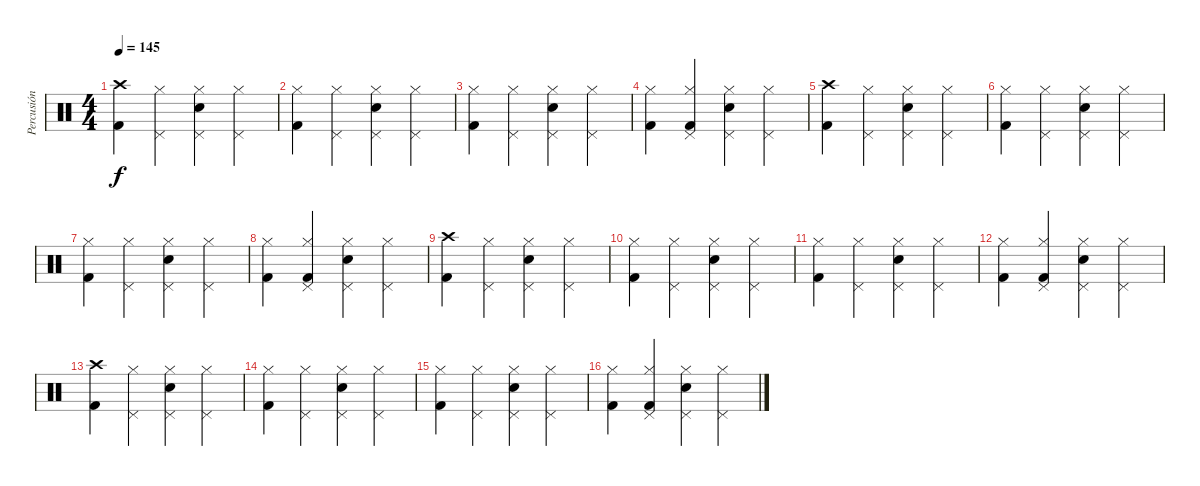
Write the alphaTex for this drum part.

\track ("Percusión" "Percusión") {instrument percussion}
\staff {score}
\articulation defaults
\ts (4 4)
\tempo 145
\clef neutral
\ks c
("Crash high (hit)" "Kick (hit) 2").4{dy f} ("Hi-Hat (closed)" "Pedal Hi-Hat (hit)").4 ("Hi-Hat (closed)" "Pedal Hi-Hat (hit)" "Electric Snare (hit)").4 ("Hi-Hat (closed)" "Pedal Hi-Hat (hit)").4 |
("Hi-Hat (closed)" "Kick (hit) 2").4 ("Hi-Hat (closed)" "Pedal Hi-Hat (hit)").4 ("Hi-Hat (closed)" "Pedal Hi-Hat (hit)" "Electric Snare (hit)").4 ("Hi-Hat (closed)" "Pedal Hi-Hat (hit)").4 |
("Hi-Hat (closed)" "Kick (hit) 2").4 ("Hi-Hat (closed)" "Pedal Hi-Hat (hit)").4 ("Hi-Hat (closed)" "Pedal Hi-Hat (hit)" "Electric Snare (hit)").4 ("Hi-Hat (closed)" "Pedal Hi-Hat (hit)").4 |
("Hi-Hat (closed)" "Kick (hit) 2").4 ("Hi-Hat (closed)" "Pedal Hi-Hat (hit)" "Kick (hit) 2").4 ("Hi-Hat (closed)" "Pedal Hi-Hat (hit)" "Electric Snare (hit)").4 ("Hi-Hat (closed)" "Pedal Hi-Hat (hit)").4 |
("Crash high (hit)" "Kick (hit) 2").4 ("Hi-Hat (closed)" "Pedal Hi-Hat (hit)").4 ("Hi-Hat (closed)" "Pedal Hi-Hat (hit)" "Electric Snare (hit)").4 ("Hi-Hat (closed)" "Pedal Hi-Hat (hit)").4 |
("Hi-Hat (closed)" "Kick (hit) 2").4 ("Hi-Hat (closed)" "Pedal Hi-Hat (hit)").4 ("Hi-Hat (closed)" "Pedal Hi-Hat (hit)" "Electric Snare (hit)").4 ("Hi-Hat (closed)" "Pedal Hi-Hat (hit)").4 |
("Hi-Hat (closed)" "Kick (hit) 2").4 ("Hi-Hat (closed)" "Pedal Hi-Hat (hit)").4 ("Hi-Hat (closed)" "Pedal Hi-Hat (hit)" "Electric Snare (hit)").4 ("Hi-Hat (closed)" "Pedal Hi-Hat (hit)").4 |
("Hi-Hat (closed)" "Kick (hit) 2").4 ("Hi-Hat (closed)" "Pedal Hi-Hat (hit)" "Kick (hit) 2").4 ("Hi-Hat (closed)" "Pedal Hi-Hat (hit)" "Electric Snare (hit)").4 ("Hi-Hat (closed)" "Pedal Hi-Hat (hit)").4 |
("Crash high (hit)" "Kick (hit) 2").4 ("Hi-Hat (closed)" "Pedal Hi-Hat (hit)").4 ("Hi-Hat (closed)" "Pedal Hi-Hat (hit)" "Electric Snare (hit)").4 ("Hi-Hat (closed)" "Pedal Hi-Hat (hit)").4 |
("Hi-Hat (closed)" "Kick (hit) 2").4 ("Hi-Hat (closed)" "Pedal Hi-Hat (hit)").4 ("Hi-Hat (closed)" "Pedal Hi-Hat (hit)" "Electric Snare (hit)").4 ("Hi-Hat (closed)" "Pedal Hi-Hat (hit)").4 |
("Hi-Hat (closed)" "Kick (hit) 2").4 ("Hi-Hat (closed)" "Pedal Hi-Hat (hit)").4 ("Hi-Hat (closed)" "Pedal Hi-Hat (hit)" "Electric Snare (hit)").4 ("Hi-Hat (closed)" "Pedal Hi-Hat (hit)").4 |
("Hi-Hat (closed)" "Kick (hit) 2").4 ("Hi-Hat (closed)" "Pedal Hi-Hat (hit)" "Kick (hit) 2").4 ("Hi-Hat (closed)" "Pedal Hi-Hat (hit)" "Electric Snare (hit)").4 ("Hi-Hat (closed)" "Pedal Hi-Hat (hit)").4 |
("Crash high (hit)" "Kick (hit) 2").4 ("Hi-Hat (closed)" "Pedal Hi-Hat (hit)").4 ("Hi-Hat (closed)" "Pedal Hi-Hat (hit)" "Electric Snare (hit)").4 ("Hi-Hat (closed)" "Pedal Hi-Hat (hit)").4 |
("Hi-Hat (closed)" "Kick (hit) 2").4 ("Hi-Hat (closed)" "Pedal Hi-Hat (hit)").4 ("Hi-Hat (closed)" "Pedal Hi-Hat (hit)" "Electric Snare (hit)").4 ("Hi-Hat (closed)" "Pedal Hi-Hat (hit)").4 |
("Hi-Hat (closed)" "Kick (hit) 2").4 ("Hi-Hat (closed)" "Pedal Hi-Hat (hit)").4 ("Hi-Hat (closed)" "Pedal Hi-Hat (hit)" "Electric Snare (hit)").4 ("Hi-Hat (closed)" "Pedal Hi-Hat (hit)").4 |
("Hi-Hat (closed)" "Kick (hit) 2").4 ("Hi-Hat (closed)" "Pedal Hi-Hat (hit)" "Kick (hit) 2").4 ("Hi-Hat (closed)" "Pedal Hi-Hat (hit)" "Electric Snare (hit)").4 ("Hi-Hat (closed)" "Pedal Hi-Hat (hit)").4
